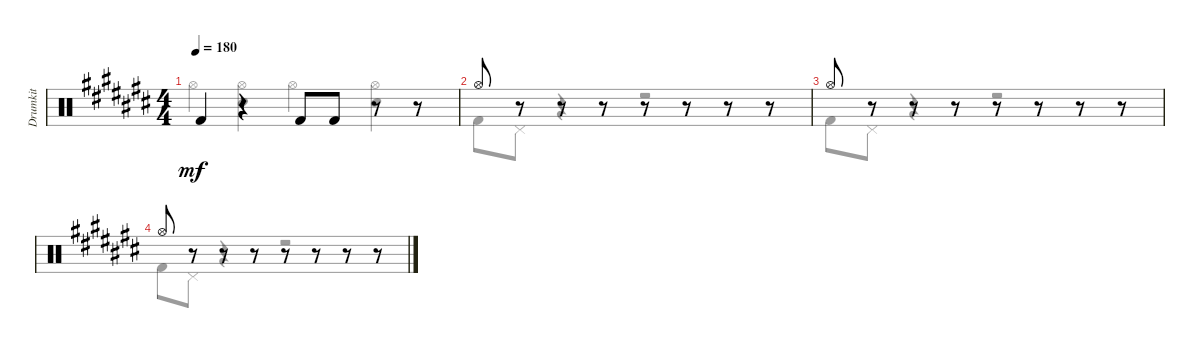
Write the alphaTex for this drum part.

\track ("Drumkit" "Drumkit") {instrument percussion}
\staff {score}
\articulation defaults
\voice
\ts (4 4)
\tempo 180
\clef neutral
\ks c# "Kick (hit) 2".4{dy mf}
r.4 "Kick (hit) 2".8 "Kick (hit) 2".8 r.8 r.8 |
"Hi-Hat (open)".8 r.8 r.8 r.8 r.8 r.8 r.8 r.8 |
"Hi-Hat (open)".8 r.8 r.8 r.8 r.8 r.8 r.8 r.8 |
"Hi-Hat (open)".8 r.8 r.8 r.8 r.8 r.8 r.8 r.8
\voice
\clef neutral
\ottava regular
\simile none
\ks c# "Hi-Hat (open)".4{dy mf}
("Hi-Hat (open)" "Snare (hit) 2").4 "Hi-Hat (open)".4 ("Hi-Hat (open)" "Snare (hit) 2").4 |
"Kick (hit) 2".8 "Pedal Hi-Hat (hit)".8 r.4 r.2 |
"Kick (hit) 2".8 "Pedal Hi-Hat (hit)".8 r.4 r.2 |
"Kick (hit) 2".8 "Pedal Hi-Hat (hit)".8 r.4 r.2
